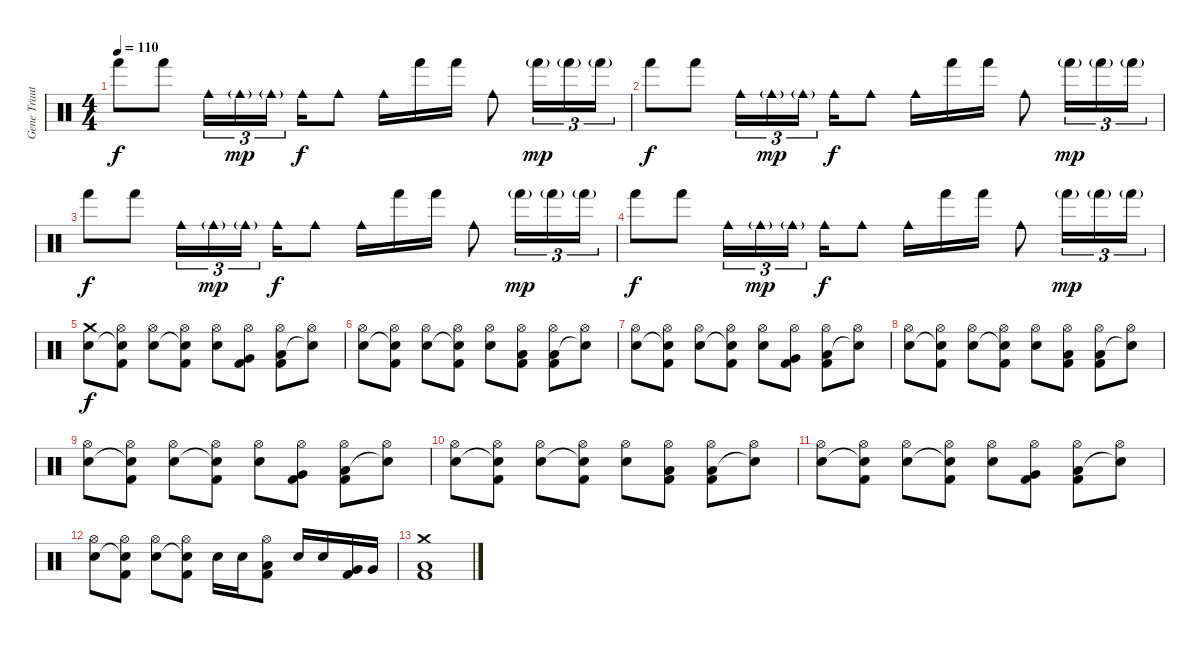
\track ("Gene Trautmann (Drums)" "Gene Traut") {instrument percussion}
\staff {score}
\articulation defaults
\ts (4 4)
\tempo 110
\clef neutral
\ks c "Hand (hit)".8{dy f} "Hand (hit)".8 "Cowbell medium (hit)".16{tu (3 2)} "Cowbell medium (hit)"{g}.16{tu (3 2) dy mp} "Cowbell medium (hit)"{g}.16{tu (3 2)} "Cowbell medium (hit)".16{dy f} "Cowbell medium (hit)".8 "Cowbell medium (hit)".16 "Hand (hit)".16 "Hand (hit)".16 "Cowbell medium (hit)".8 "Hand (hit)"{g}.16{tu (3 2) dy mp} "Hand (hit)"{g}.16{tu (3 2)} "Hand (hit)"{g}.16{tu (3 2)}
|
"Hand (hit)".8{dy f} "Hand (hit)".8 "Cowbell medium (hit)".16{tu (3 2)} "Cowbell medium (hit)"{g}.16{tu (3 2) dy mp} "Cowbell medium (hit)"{g}.16{tu (3 2)} "Cowbell medium (hit)".16{dy f} "Cowbell medium (hit)".8 "Cowbell medium (hit)".16 "Hand (hit)".16 "Hand (hit)".16 "Cowbell medium (hit)".8 "Hand (hit)"{g}.16{tu (3 2) dy mp} "Hand (hit)"{g}.16{tu (3 2)} "Hand (hit)"{g}.16{tu (3 2)} |
"Hand (hit)".8{dy f} "Hand (hit)".8 "Cowbell medium (hit)".16{tu (3 2)} "Cowbell medium (hit)"{g}.16{tu (3 2) dy mp} "Cowbell medium (hit)"{g}.16{tu (3 2)} "Cowbell medium (hit)".16{dy f} "Cowbell medium (hit)".8 "Cowbell medium (hit)".16 "Hand (hit)".16 "Hand (hit)".16 "Cowbell medium (hit)".8 "Hand (hit)"{g}.16{tu (3 2) dy mp} "Hand (hit)"{g}.16{tu (3 2)} "Hand (hit)"{g}.16{tu (3 2)} |
"Hand (hit)".8{dy f} "Hand (hit)".8 "Cowbell medium (hit)".16{tu (3 2)} "Cowbell medium (hit)"{g}.16{tu (3 2) dy mp} "Cowbell medium (hit)"{g}.16{tu (3 2)} "Cowbell medium (hit)".16{dy f} "Cowbell medium (hit)".8 "Cowbell medium (hit)".16 "Hand (hit)".16 "Hand (hit)".16 "Cowbell medium (hit)".8 "Hand (hit)"{g}.16{tu (3 2) dy mp} "Hand (hit)"{g}.16{tu (3 2)} "Hand (hit)"{g}.16{tu (3 2)} |
("Crash medium (hit)" "Electric Snare (hit)").8{dy f} ("Hi-Hat (open)" "Snare (hit)"{t} "Kick (hit) 2").8 ("Hi-Hat (open)" "Electric Snare (hit)").8 ("Hi-Hat (open)" "Snare (hit)"{t} "Kick (hit) 2").8 ("Hi-Hat (open)" "Electric Snare (hit)").8 ("Hi-Hat (open)" "Very Low Tom (hit)" "Kick (hit) 2").8 ("Hi-Hat (open)" "Low Floor Tom (hit)" "Kick (hit) 2").8 ("Hi-Hat (open)" "Snare (hit)"{t}).8 |
("Hi-Hat (open)" "Electric Snare (hit)").8 ("Hi-Hat (open)" "Snare (hit)"{t} "Kick (hit) 2").8 ("Hi-Hat (open)" "Electric Snare (hit)").8 ("Hi-Hat (open)" "Snare (hit)"{t} "Kick (hit) 2").8 ("Hi-Hat (open)" "Electric Snare (hit)").8 ("Hi-Hat (open)" "Low Tom (hit)" "Kick (hit) 2").8 ("Hi-Hat (open)" "Low Floor Tom (hit)" "Kick (hit) 2").8 ("Hi-Hat (open)" "Snare (hit)"{t}).8 |
("Hi-Hat (open)" "Electric Snare (hit)").8 ("Hi-Hat (open)" "Snare (hit)"{t} "Kick (hit) 2").8 ("Hi-Hat (open)" "Electric Snare (hit)").8 ("Hi-Hat (open)" "Snare (hit)"{t} "Kick (hit) 2").8 ("Hi-Hat (open)" "Electric Snare (hit)").8 ("Hi-Hat (open)" "Very Low Tom (hit)" "Kick (hit) 2").8 ("Hi-Hat (open)" "Low Floor Tom (hit)" "Kick (hit) 2").8 ("Hi-Hat (open)" "Snare (hit)"{t}).8 |
("Hi-Hat (open)" "Electric Snare (hit)").8 ("Hi-Hat (open)" "Snare (hit)"{t} "Kick (hit) 2").8 ("Hi-Hat (open)" "Electric Snare (hit)").8 ("Hi-Hat (open)" "Snare (hit)"{t} "Kick (hit) 2").8 ("Hi-Hat (open)" "Electric Snare (hit)").8 ("Hi-Hat (open)" "Low Tom (hit)" "Kick (hit) 2").8 ("Hi-Hat (open)" "Low Floor Tom (hit)" "Kick (hit) 2").8 ("Hi-Hat (open)" "Snare (hit)"{t}).8 |
("Hi-Hat (open)" "Electric Snare (hit)").8 ("Hi-Hat (open)" "Snare (hit)"{t} "Kick (hit) 2").8 ("Hi-Hat (open)" "Electric Snare (hit)").8 ("Hi-Hat (open)" "Snare (hit)"{t} "Kick (hit) 2").8 ("Hi-Hat (open)" "Electric Snare (hit)").8 ("Hi-Hat (open)" "Very Low Tom (hit)" "Kick (hit) 2").8 ("Hi-Hat (open)" "Low Floor Tom (hit)" "Kick (hit) 2").8 ("Hi-Hat (open)" "Snare (hit)"{t}).8 |
("Hi-Hat (open)" "Electric Snare (hit)").8 ("Hi-Hat (open)" "Snare (hit)"{t} "Kick (hit) 2").8 ("Hi-Hat (open)" "Electric Snare (hit)").8 ("Hi-Hat (open)" "Snare (hit)"{t} "Kick (hit) 2").8 ("Hi-Hat (open)" "Electric Snare (hit)").8 ("Hi-Hat (open)" "Low Tom (hit)" "Kick (hit) 2").8 ("Hi-Hat (open)" "Low Floor Tom (hit)" "Kick (hit) 2").8 ("Hi-Hat (open)" "Snare (hit)"{t}).8 |
("Hi-Hat (open)" "Electric Snare (hit)").8 ("Hi-Hat (open)" "Snare (hit)"{t} "Kick (hit) 2").8 ("Hi-Hat (open)" "Electric Snare (hit)").8 ("Hi-Hat (open)" "Snare (hit)"{t} "Kick (hit) 2").8 ("Hi-Hat (open)" "Electric Snare (hit)").8 ("Hi-Hat (open)" "Very Low Tom (hit)" "Kick (hit) 2").8 ("Hi-Hat (open)" "Low Floor Tom (hit)" "Kick (hit) 2").8 ("Hi-Hat (open)" "Snare (hit)"{t}).8 |
("Hi-Hat (open)" "Electric Snare (hit)").8 ("Hi-Hat (open)" "Snare (hit)"{t} "Kick (hit) 2").8 ("Hi-Hat (open)" "Electric Snare (hit)").8 ("Hi-Hat (open)" "Snare (hit)"{t} "Kick (hit) 2").8 "Electric Snare (hit)".16 "Electric Snare (hit)".16 ("Hi-Hat (open)" "Low Tom (hit)" "Kick (hit) 2").8 "Electric Snare (hit)".16 "Electric Snare (hit)".16 ("Very Low Tom (hit)" "Kick (hit) 2").16 "Very Low Tom (hit)".16 |
("Crash medium (hit)" "Low Floor Tom (hit)" "Kick (hit) 2").1
